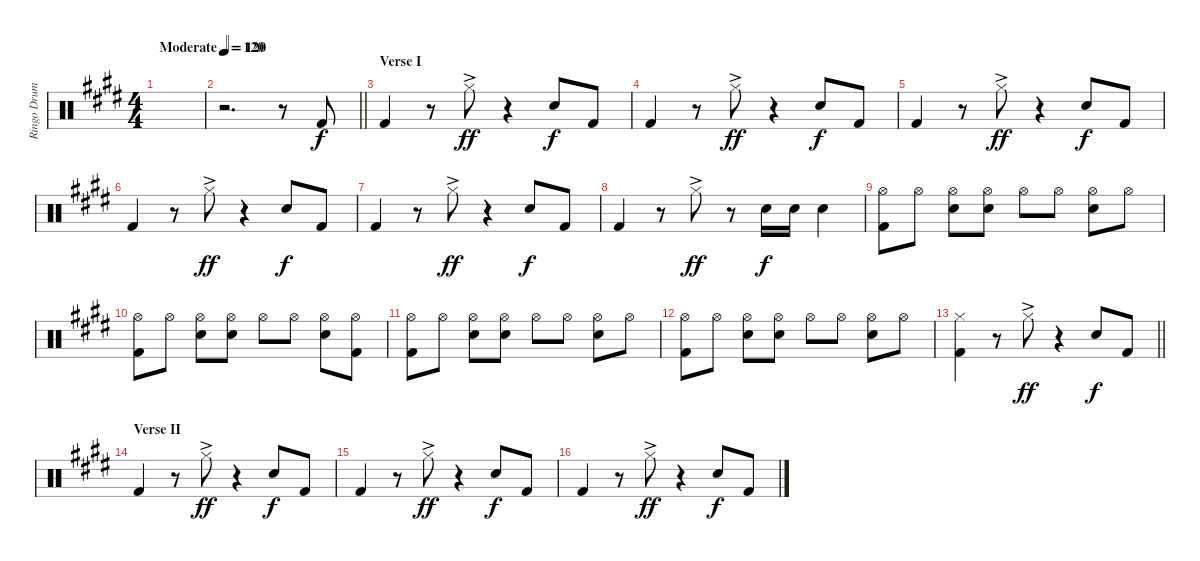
\track ("Ringo Drums" "Ringo Drum") {instrument percussion}
\staff {score}
\articulation defaults
\ts (4 4)
\tempo (120 "Moderate")
\clef neutral
\ks e
|
\tempo 120
\barLineRight lightlight
r.2{d} r.8 "Kick (hit) 2".8 |
\section ("" "Verse I")
"Kick (hit) 2".4 r.8 "Hi-Hat (closed)"{ac}.8{dy ff} r.4 "Snare (hit) 2".8{dy f} "Kick (hit) 2".8 |
"Kick (hit) 2".4 r.8 "Hi-Hat (closed)"{ac}.8{dy ff} r.4 "Snare (hit) 2".8{dy f} "Kick (hit) 2".8 |
"Kick (hit) 2".4 r.8 "Hi-Hat (closed)"{ac}.8{dy ff} r.4 "Snare (hit) 2".8{dy f} "Kick (hit) 2".8 |
"Kick (hit) 2".4 r.8 "Hi-Hat (closed)"{ac}.8{dy ff} r.4 "Snare (hit) 2".8{dy f} "Kick (hit) 2".8 |
"Kick (hit) 2".4 r.8 "Hi-Hat (closed)"{ac}.8{dy ff} r.4 "Snare (hit) 2".8{dy f} "Kick (hit) 2".8 |
"Kick (hit) 2".4 r.8 "Hi-Hat (closed)"{ac}.8{dy ff} r.8 "Snare (hit) 2".16{dy f} "Electric Snare (hit)".16 "Snare (hit) 2".4 |
("Hi-Hat (open)" "Kick (hit) 2").8 "Hi-Hat (open)".8 ("Hi-Hat (open)" "Snare (hit) 2").8 ("Hi-Hat (open)" "Snare (hit) 2").8 "Hi-Hat (open)".8 "Hi-Hat (open)".8 ("Hi-Hat (open)" "Snare (hit) 2").8 "Hi-Hat (open)".8 |
("Hi-Hat (open)" "Kick (hit) 2").8 "Hi-Hat (open)".8 ("Hi-Hat (open)" "Snare (hit) 2").8 ("Hi-Hat (open)" "Snare (hit) 2").8 "Hi-Hat (open)".8 "Hi-Hat (open)".8 ("Hi-Hat (open)" "Snare (hit) 2").8 ("Hi-Hat (open)" "Kick (hit) 2").8 |
("Hi-Hat (open)" "Kick (hit) 2").8 "Hi-Hat (open)".8 ("Hi-Hat (open)" "Snare (hit) 2").8 ("Hi-Hat (open)" "Snare (hit) 2").8 "Hi-Hat (open)".8 "Hi-Hat (open)".8 ("Hi-Hat (open)" "Snare (hit) 2").8 "Hi-Hat (open)".8 |
("Hi-Hat (open)" "Kick (hit) 2").8 "Hi-Hat (open)".8 ("Hi-Hat (open)" "Snare (hit) 2").8 ("Hi-Hat (open)" "Snare (hit) 2").8 "Hi-Hat (open)".8 "Hi-Hat (open)".8 ("Hi-Hat (open)" "Snare (hit) 2").8 "Hi-Hat (open)".8 |
\barLineRight lightlight
("Hi-Hat (closed)" "Kick (hit) 2").4 r.8 "Hi-Hat (closed)"{ac}.8{dy ff} r.4 "Snare (hit) 2".8{dy f} "Kick (hit) 2".8 |
\section ("" "Verse II")
"Kick (hit) 2".4 r.8 "Hi-Hat (closed)"{ac}.8{dy ff} r.4 "Snare (hit) 2".8{dy f} "Kick (hit) 2".8 |
"Kick (hit) 2".4 r.8 "Hi-Hat (closed)"{ac}.8{dy ff} r.4 "Snare (hit) 2".8{dy f} "Kick (hit) 2".8 |
"Kick (hit) 2".4 r.8 "Hi-Hat (closed)"{ac}.8{dy ff} r.4 "Snare (hit) 2".8{dy f} "Kick (hit) 2".8
